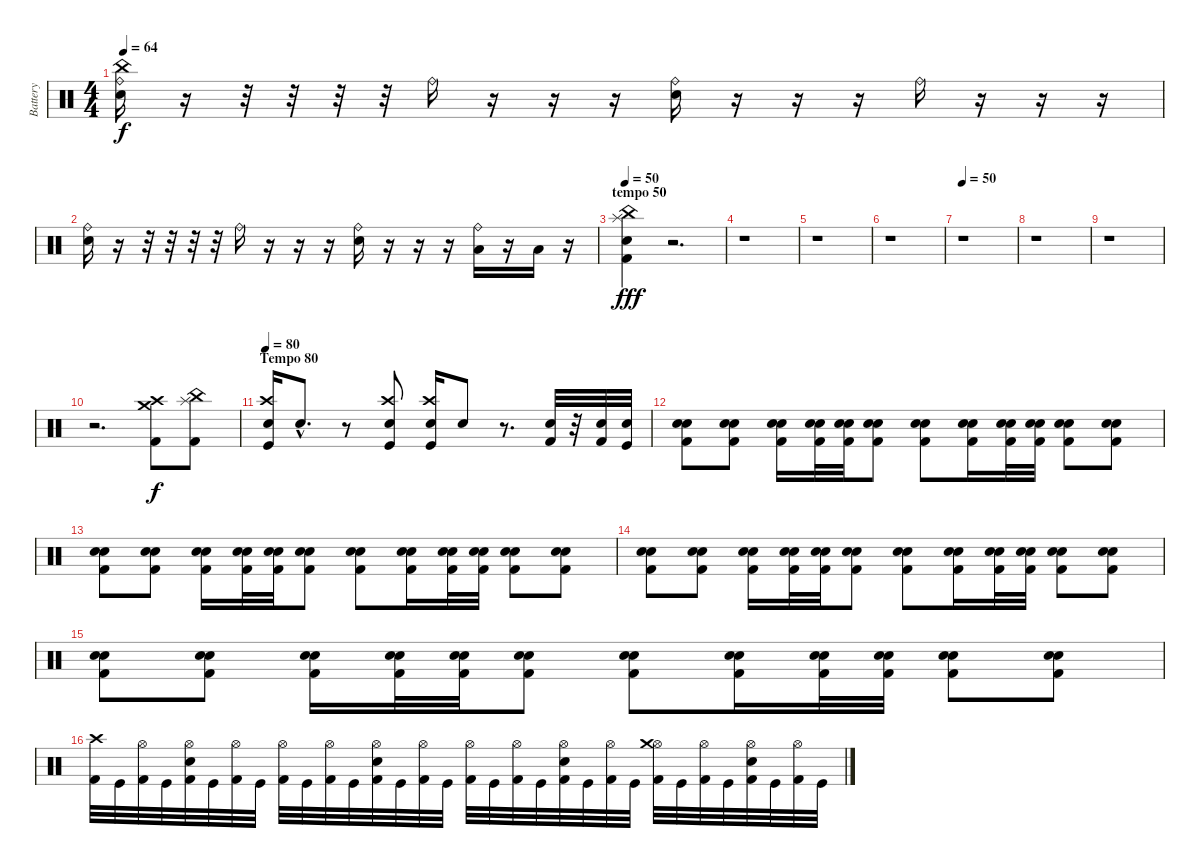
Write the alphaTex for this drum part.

\track ("Battery" "Battery") {instrument percussion}
\staff {score}
\articulation defaults
\ts (4 4)
\tempo 64
\clef neutral
\ks c
("Ride (bell)" "China (hit)" "Electric Snare (hit)").16{dy f} r.16 r.32 r.32 r.32 r.32 "Ride (bell)".16 r.16 r.16 r.16 ("Ride (bell)" "Electric Snare (hit)").16 r.16 r.16 r.16 "Ride (bell)".16 r.16 r.16 r.16 |
("Electric Snare (hit)" "Ride (bell)").16 r.16 r.32 r.32 r.32 r.32 "Ride (bell)".16 r.16 r.16 r.16 ("Electric Snare (hit)" "Ride (bell)").16 r.16 r.16 r.16 ("Low Floor Tom (hit)" "Ride (bell)").16 r.16 "Low Floor Tom (hit)".16 r.16 |
\section ("" "tempo 50")
\tempo 50
("Splash (hit)" "China (hit)" "Kick (hit) 2" "Electric Snare (hit)").4{dy fff} r.2{d} |
r.1 |
r.1 |
r.1 |
\tempo 50
r.1 |
r.1 |
r.1 |
r.2{d} ("Crash high (hit)" "Kick (hit) 2" "Crash medium (hit)").8{dy f} ("Splash (hit)" "China (hit)" "Kick (hit) 2").8 |
\section ("" "Tempo 80")
\tempo 80
("Crash high (hit)" "Kick (hit)" "Electric Snare (hit)").16 "Electric Snare (hit)"{hac}.8{d} r.8 ("Electric Snare (hit)" "Kick (hit)" "Crash high (hit)").8 ("Electric Snare (hit)" "Crash high (hit)" "Kick (hit)").16 "Electric Snare (hit)".8 r.8{d} ("Snare (hit) 2" "Kick (hit) 2").32 r.32 ("Kick (hit) 2" "Snare (hit) 2").32 ("Kick (hit)" "Snare (hit) 2").32 |
("Electric Snare (hit)" "Kick (hit) 2" "Snare (hit) 2").8 ("Electric Snare (hit)" "Kick (hit) 2" "Snare (hit) 2").8 ("Kick (hit) 2" "Snare (hit) 2" "Electric Snare (hit)").16 ("Snare (hit) 2" "Kick (hit) 2" "Electric Snare (hit)").32 ("Kick (hit) 2" "Electric Snare (hit)" "Snare (hit) 2").32 ("Kick (hit) 2" "Snare (hit) 2" "Electric Snare (hit)").8 ("Electric Snare (hit)" "Kick (hit) 2" "Snare (hit) 2").8 ("Snare (hit) 2" "Electric Snare (hit)" "Kick (hit) 2").16 ("Snare (hit) 2" "Electric Snare (hit)" "Kick (hit) 2").32 ("Kick (hit) 2" "Electric Snare (hit)" "Snare (hit) 2").32 ("Snare (hit) 2" "Kick (hit) 2" "Electric Snare (hit)").8 ("Kick (hit) 2" "Snare (hit) 2" "Electric Snare (hit)").8 |
("Snare (hit) 2" "Electric Snare (hit)" "Kick (hit) 2").8 ("Kick (hit) 2" "Electric Snare (hit)" "Snare (hit) 2").8 ("Electric Snare (hit)" "Snare (hit) 2" "Kick (hit) 2").16 ("Kick (hit) 2" "Electric Snare (hit)" "Snare (hit) 2").32 ("Snare (hit) 2" "Electric Snare (hit)" "Kick (hit) 2").32 ("Snare (hit) 2" "Electric Snare (hit)" "Kick (hit) 2").8 ("Electric Snare (hit)" "Kick (hit) 2" "Snare (hit) 2").8 ("Snare (hit) 2" "Kick (hit) 2" "Electric Snare (hit)").16 ("Kick (hit) 2" "Electric Snare (hit)" "Snare (hit) 2").32 ("Electric Snare (hit)" "Kick (hit) 2" "Snare (hit) 2").32 ("Kick (hit) 2" "Snare (hit) 2" "Electric Snare (hit)").8 ("Snare (hit) 2" "Kick (hit) 2" "Electric Snare (hit)").8 |
("Kick (hit) 2" "Snare (hit) 2" "Electric Snare (hit)").8 ("Kick (hit) 2" "Electric Snare (hit)" "Snare (hit) 2").8 ("Kick (hit) 2" "Electric Snare (hit)" "Snare (hit) 2").16 ("Kick (hit) 2" "Snare (hit) 2" "Electric Snare (hit)").32 ("Snare (hit) 2" "Electric Snare (hit)" "Kick (hit) 2").32 ("Electric Snare (hit)" "Kick (hit) 2" "Snare (hit) 2").8 ("Electric Snare (hit)" "Snare (hit) 2" "Kick (hit) 2").8 ("Kick (hit) 2" "Electric Snare (hit)" "Snare (hit) 2").16 ("Snare (hit) 2" "Kick (hit) 2" "Electric Snare (hit)").32 ("Snare (hit) 2" "Kick (hit) 2" "Electric Snare (hit)").32 ("Electric Snare (hit)" "Kick (hit) 2" "Snare (hit) 2").8 ("Snare (hit) 2" "Kick (hit) 2" "Electric Snare (hit)").8 |
("Electric Snare (hit)" "Snare (hit) 2" "Kick (hit) 2").8 ("Electric Snare (hit)" "Snare (hit) 2" "Kick (hit) 2").8 ("Kick (hit) 2" "Snare (hit) 2" "Electric Snare (hit)").16 ("Kick (hit) 2" "Snare (hit) 2" "Electric Snare (hit)").32 ("Electric Snare (hit)" "Kick (hit) 2" "Snare (hit) 2").32 ("Snare (hit) 2" "Kick (hit) 2" "Electric Snare (hit)").8 ("Snare (hit) 2" "Electric Snare (hit)" "Kick (hit) 2").8 ("Electric Snare (hit)" "Kick (hit) 2" "Snare (hit) 2").16 ("Snare (hit) 2" "Electric Snare (hit)" "Kick (hit) 2").32 ("Electric Snare (hit)" "Kick (hit) 2" "Snare (hit) 2").32 ("Electric Snare (hit)" "Kick (hit) 2" "Snare (hit) 2").8 ("Electric Snare (hit)" "Snare (hit) 2" "Kick (hit) 2").8 |
("Crash high (hit)" "Kick (hit) 2").32 "Kick (hit)".32 ("Hi-Hat (open)" "Kick (hit) 2").32 "Kick (hit)".32 ("Kick (hit) 2" "Hi-Hat (open)" "Snare (hit) 2").32 "Kick (hit)".32 ("Hi-Hat (open)" "Kick (hit) 2").32 "Kick (hit)".32 ("Kick (hit) 2" "Hi-Hat (open)").32 "Kick (hit)".32 ("Hi-Hat (open)" "Kick (hit) 2").32 "Kick (hit)".32 ("Snare (hit) 2" "Hi-Hat (open)" "Kick (hit) 2").32 "Kick (hit)".32 ("Hi-Hat (open)" "Kick (hit) 2").32 "Kick (hit)".32 ("Kick (hit) 2" "Hi-Hat (open)").32 "Kick (hit)".32 ("Kick (hit) 2" "Hi-Hat (open)").32 "Kick (hit)".32 ("Snare (hit) 2" "Kick (hit) 2" "Hi-Hat (open)").32 "Kick (hit)".32 ("Kick (hit) 2" "Hi-Hat (open)").32 "Kick (hit)".32 ("Kick (hit) 2" "Hi-Hat (open)" "Crash medium (hit)").32 "Kick (hit)".32 ("Kick (hit) 2" "Hi-Hat (open)").32 "Kick (hit)".32 ("Snare (hit) 2" "Hi-Hat (open)" "Kick (hit) 2").32 "Kick (hit)".32 ("Kick (hit) 2" "Hi-Hat (open)").32 "Kick (hit)".32
